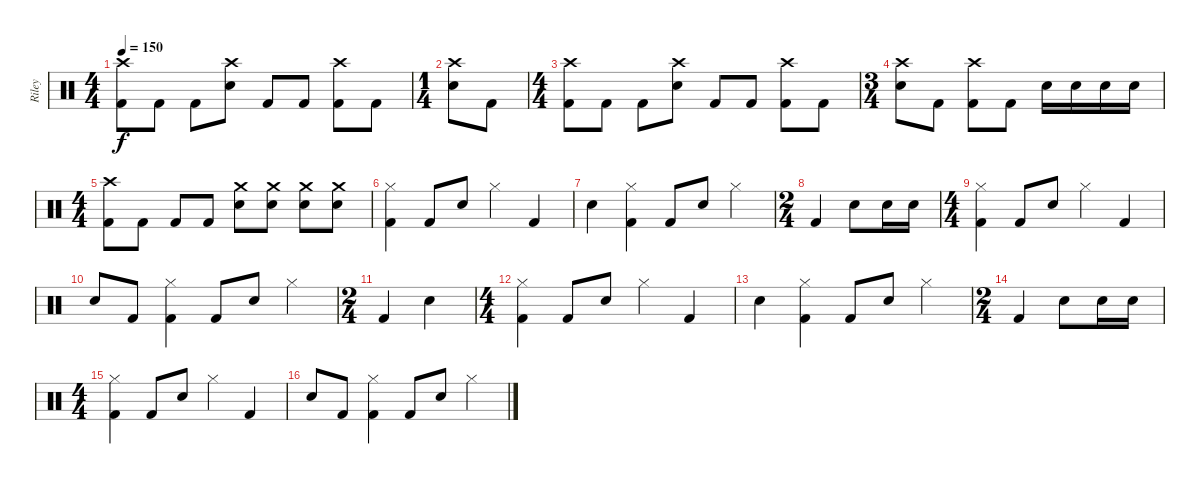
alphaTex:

\track ("Riley" "Riley") {instrument percussion}
\staff {score}
\articulation defaults
\ts (4 4)
\tempo 150
\clef neutral
\ks c
("Crash high (hit)" "Kick (hit) 2").8{dy f} "Kick (hit) 2".8 "Kick (hit) 2".8 ("Crash high (hit)" "Electric Snare (hit)").8 "Kick (hit) 2".8 "Kick (hit) 2".8 ("Crash high (hit)" "Kick (hit) 2").8 "Kick (hit) 2".8 |
\ts (1 4)
("Crash high (hit)" "Electric Snare (hit)").8 "Kick (hit) 2".8 |
\ts (4 4)
("Crash high (hit)" "Kick (hit) 2").8 "Kick (hit) 2".8 "Kick (hit) 2".8 ("Crash high (hit)" "Electric Snare (hit)").8 "Kick (hit) 2".8 "Kick (hit) 2".8 ("Crash high (hit)" "Kick (hit) 2").8 "Kick (hit) 2".8 |
\ts (3 4)
("Crash high (hit)" "Electric Snare (hit)").8 "Kick (hit) 2".8 ("Crash high (hit)" "Kick (hit) 2").8 "Kick (hit) 2".8 "Electric Snare (hit)".16 "Electric Snare (hit)".16 "Electric Snare (hit)".16 "Electric Snare (hit)".16 |
\ts (4 4)
("Crash high (hit)" "Kick (hit) 2").8 "Kick (hit) 2".8 "Kick (hit) 2".8 "Kick (hit) 2".8 ("Crash medium (hit)" "Electric Snare (hit)").8 ("Crash medium (hit)" "Electric Snare (hit)").8 ("Crash medium (hit)" "Electric Snare (hit)").8 ("Crash medium (hit)" "Electric Snare (hit)").8 |
("Hi-Hat (closed)" "Kick (hit) 2").4 "Kick (hit) 2".8 "Electric Snare (hit)".8 "Hi-Hat (closed)".4 "Kick (hit) 2".4 |
"Electric Snare (hit)".4 ("Hi-Hat (closed)" "Kick (hit) 2").4 "Kick (hit) 2".8 "Electric Snare (hit)".8 "Hi-Hat (closed)".4 |
\ts (2 4)
"Kick (hit) 2".4 "Electric Snare (hit)".8 "Electric Snare (hit)".16 "Electric Snare (hit)".16 |
\ts (4 4)
("Hi-Hat (closed)" "Kick (hit) 2").4 "Kick (hit) 2".8 "Electric Snare (hit)".8 "Hi-Hat (closed)".4 "Kick (hit) 2".4 |
"Electric Snare (hit)".8 "Kick (hit) 2".8 ("Hi-Hat (closed)" "Kick (hit) 2").4 "Kick (hit) 2".8 "Electric Snare (hit)".8 "Hi-Hat (closed)".4 |
\ts (2 4)
"Kick (hit) 2".4 "Electric Snare (hit)".4 |
\ts (4 4)
("Hi-Hat (closed)" "Kick (hit) 2").4 "Kick (hit) 2".8 "Electric Snare (hit)".8 "Hi-Hat (closed)".4 "Kick (hit) 2".4 |
"Electric Snare (hit)".4 ("Hi-Hat (closed)" "Kick (hit) 2").4 "Kick (hit) 2".8 "Electric Snare (hit)".8 "Hi-Hat (closed)".4 |
\ts (2 4)
"Kick (hit) 2".4 "Electric Snare (hit)".8 "Electric Snare (hit)".16 "Electric Snare (hit)".16 |
\ts (4 4)
("Hi-Hat (closed)" "Kick (hit) 2").4 "Kick (hit) 2".8 "Electric Snare (hit)".8 "Hi-Hat (closed)".4 "Kick (hit) 2".4 |
"Electric Snare (hit)".8 "Kick (hit) 2".8 ("Hi-Hat (closed)" "Kick (hit) 2").4 "Kick (hit) 2".8 "Electric Snare (hit)".8 "Hi-Hat (closed)".4
